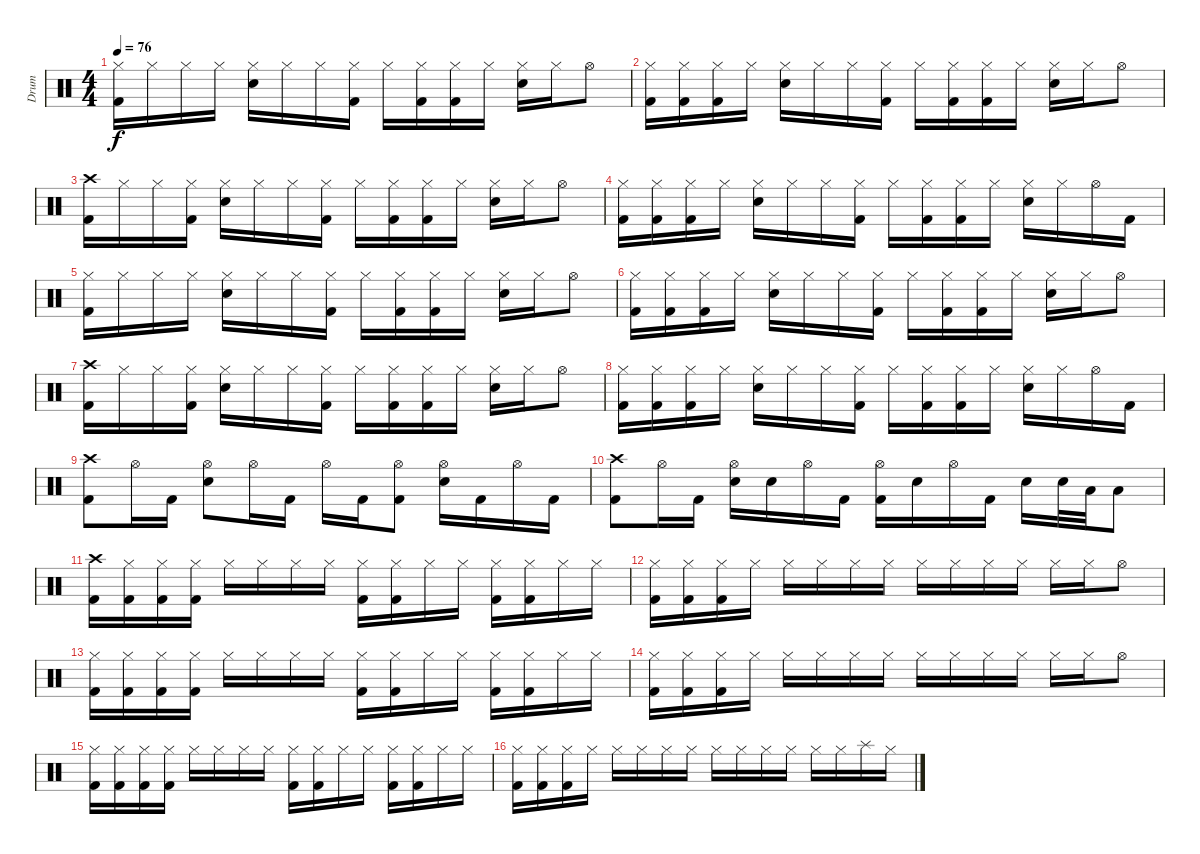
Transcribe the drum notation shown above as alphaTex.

\track ("Drum" "Drum") {instrument percussion}
\staff {score}
\articulation defaults
\ts (4 4)
\tempo 76
\clef neutral
\ks c
("Hi-Hat (closed)" "Kick (hit) 2").16{dy f} "Hi-Hat (closed)".16 "Hi-Hat (closed)".16 "Hi-Hat (closed)".16 ("Hi-Hat (closed)" "Electric Snare (hit)").16 "Hi-Hat (closed)".16 "Hi-Hat (closed)".16 ("Hi-Hat (closed)" "Kick (hit) 2").16 "Hi-Hat (closed)".16 ("Hi-Hat (closed)" "Kick (hit) 2").16 ("Hi-Hat (closed)" "Kick (hit) 2").16 "Hi-Hat (closed)".16 ("Hi-Hat (closed)" "Electric Snare (hit)").16 "Hi-Hat (closed)".16 "Hi-Hat (open)".8 |
("Hi-Hat (closed)" "Kick (hit) 2").16 ("Hi-Hat (closed)" "Kick (hit) 2").16 ("Hi-Hat (closed)" "Kick (hit) 2").16 "Hi-Hat (closed)".16 ("Hi-Hat (closed)" "Electric Snare (hit)").16 "Hi-Hat (closed)".16 "Hi-Hat (closed)".16 ("Hi-Hat (closed)" "Kick (hit) 2").16 "Hi-Hat (closed)".16 ("Hi-Hat (closed)" "Kick (hit) 2").16 ("Hi-Hat (closed)" "Kick (hit) 2").16 "Hi-Hat (closed)".16 ("Hi-Hat (closed)" "Electric Snare (hit)").16 "Hi-Hat (closed)".16 "Hi-Hat (open)".8 |
("Crash high (hit)" "Kick (hit) 2").16 "Hi-Hat (closed)".16 "Hi-Hat (closed)".16 ("Hi-Hat (closed)" "Kick (hit) 2").16 ("Hi-Hat (closed)" "Electric Snare (hit)").16 "Hi-Hat (closed)".16 "Hi-Hat (closed)".16 ("Hi-Hat (closed)" "Kick (hit) 2").16 "Hi-Hat (closed)".16 ("Hi-Hat (closed)" "Kick (hit) 2").16 ("Hi-Hat (closed)" "Kick (hit) 2").16 "Hi-Hat (closed)".16 ("Hi-Hat (closed)" "Electric Snare (hit)").16 "Hi-Hat (closed)".16 "Hi-Hat (open)".8 |
("Hi-Hat (closed)" "Kick (hit) 2").16 ("Hi-Hat (closed)" "Kick (hit) 2").16 ("Hi-Hat (closed)" "Kick (hit) 2").16 "Hi-Hat (closed)".16 ("Hi-Hat (closed)" "Electric Snare (hit)").16 "Hi-Hat (closed)".16 "Hi-Hat (closed)".16 ("Hi-Hat (closed)" "Kick (hit) 2").16 "Hi-Hat (closed)".16 ("Hi-Hat (closed)" "Kick (hit) 2").16 ("Hi-Hat (closed)" "Kick (hit) 2").16 "Hi-Hat (closed)".16 ("Hi-Hat (closed)" "Electric Snare (hit)").16 "Hi-Hat (closed)".16 "Hi-Hat (open)".16 "Kick (hit) 2".16 |
("Hi-Hat (closed)" "Kick (hit) 2").16 "Hi-Hat (closed)".16 "Hi-Hat (closed)".16 "Hi-Hat (closed)".16 ("Hi-Hat (closed)" "Electric Snare (hit)").16 "Hi-Hat (closed)".16 "Hi-Hat (closed)".16 ("Hi-Hat (closed)" "Kick (hit) 2").16 "Hi-Hat (closed)".16 ("Hi-Hat (closed)" "Kick (hit) 2").16 ("Hi-Hat (closed)" "Kick (hit) 2").16 "Hi-Hat (closed)".16 ("Hi-Hat (closed)" "Electric Snare (hit)").16 "Hi-Hat (closed)".16 "Hi-Hat (open)".8 |
("Hi-Hat (closed)" "Kick (hit) 2").16 ("Hi-Hat (closed)" "Kick (hit) 2").16 ("Hi-Hat (closed)" "Kick (hit) 2").16 "Hi-Hat (closed)".16 ("Hi-Hat (closed)" "Electric Snare (hit)").16 "Hi-Hat (closed)".16 "Hi-Hat (closed)".16 ("Hi-Hat (closed)" "Kick (hit) 2").16 "Hi-Hat (closed)".16 ("Hi-Hat (closed)" "Kick (hit) 2").16 ("Hi-Hat (closed)" "Kick (hit) 2").16 "Hi-Hat (closed)".16 ("Hi-Hat (closed)" "Electric Snare (hit)").16 "Hi-Hat (closed)".16 "Hi-Hat (open)".8 |
("Crash high (hit)" "Kick (hit) 2").16 "Hi-Hat (closed)".16 "Hi-Hat (closed)".16 ("Hi-Hat (closed)" "Kick (hit) 2").16 ("Hi-Hat (closed)" "Electric Snare (hit)").16 "Hi-Hat (closed)".16 "Hi-Hat (closed)".16 ("Hi-Hat (closed)" "Kick (hit) 2").16 "Hi-Hat (closed)".16 ("Hi-Hat (closed)" "Kick (hit) 2").16 ("Hi-Hat (closed)" "Kick (hit) 2").16 "Hi-Hat (closed)".16 ("Hi-Hat (closed)" "Electric Snare (hit)").16 "Hi-Hat (closed)".16 "Hi-Hat (open)".8 |
("Hi-Hat (closed)" "Kick (hit) 2").16 ("Hi-Hat (closed)" "Kick (hit) 2").16 ("Hi-Hat (closed)" "Kick (hit) 2").16 "Hi-Hat (closed)".16 ("Hi-Hat (closed)" "Electric Snare (hit)").16 "Hi-Hat (closed)".16 "Hi-Hat (closed)".16 ("Hi-Hat (closed)" "Kick (hit) 2").16 "Hi-Hat (closed)".16 ("Hi-Hat (closed)" "Kick (hit) 2").16 ("Hi-Hat (closed)" "Kick (hit) 2").16 "Hi-Hat (closed)".16 ("Hi-Hat (closed)" "Electric Snare (hit)").16 "Hi-Hat (closed)".16 "Hi-Hat (open)".16 "Kick (hit) 2".16 |
("Crash high (hit)" "Kick (hit) 2").8 "Hi-Hat (open)".16 "Kick (hit) 2".16 ("Hi-Hat (open)" "Electric Snare (hit)").8 "Hi-Hat (open)".16 "Kick (hit) 2".16 "Hi-Hat (open)".16 "Kick (hit) 2".16 ("Hi-Hat (open)" "Kick (hit) 2").8 ("Hi-Hat (open)" "Electric Snare (hit)").16 "Kick (hit) 2".16 "Hi-Hat (open)".16 "Kick (hit) 2".16 |
("Crash high (hit)" "Kick (hit) 2").8 "Hi-Hat (open)".16 "Kick (hit) 2".16 ("Hi-Hat (open)" "Electric Snare (hit)").16 "Electric Snare (hit)".16 "Hi-Hat (open)".16 "Kick (hit) 2".16 ("Hi-Hat (open)" "Kick (hit) 2").16 "Electric Snare (hit)".16 "Hi-Hat (open)".16 "Kick (hit) 2".16 "Electric Snare (hit)".16 "Electric Snare (hit)".32 "Low Floor Tom (hit)".32 "Low Tom (hit)".8 |
("Crash high (hit)" "Kick (hit) 2").16 ("Hi-Hat (closed)" "Kick (hit) 2").16 ("Hi-Hat (closed)" "Kick (hit) 2").16 ("Hi-Hat (closed)" "Kick (hit) 2").16 "Hi-Hat (closed)".16 "Hi-Hat (closed)".16 "Hi-Hat (closed)".16 "Hi-Hat (closed)".16 ("Hi-Hat (closed)" "Kick (hit) 2").16 ("Hi-Hat (closed)" "Kick (hit) 2").16 "Hi-Hat (closed)".16 "Hi-Hat (closed)".16 ("Hi-Hat (closed)" "Kick (hit) 2").16 ("Hi-Hat (closed)" "Kick (hit) 2").16 "Hi-Hat (closed)".16 "Hi-Hat (closed)".16 |
("Hi-Hat (closed)" "Kick (hit) 2").16 ("Hi-Hat (closed)" "Kick (hit) 2").16 ("Hi-Hat (closed)" "Kick (hit) 2").16 "Hi-Hat (closed)".16 "Hi-Hat (closed)".16 "Hi-Hat (closed)".16 "Hi-Hat (closed)".16 "Hi-Hat (closed)".16 "Hi-Hat (closed)".16 "Hi-Hat (closed)".16 "Hi-Hat (closed)".16 "Hi-Hat (closed)".16 "Hi-Hat (closed)".16 "Hi-Hat (closed)".16 "Hi-Hat (open)".8 |
("Hi-Hat (closed)" "Kick (hit) 2").16 ("Hi-Hat (closed)" "Kick (hit) 2").16 ("Hi-Hat (closed)" "Kick (hit) 2").16 ("Hi-Hat (closed)" "Kick (hit) 2").16 "Hi-Hat (closed)".16 "Hi-Hat (closed)".16 "Hi-Hat (closed)".16 "Hi-Hat (closed)".16 ("Hi-Hat (closed)" "Kick (hit) 2").16 ("Hi-Hat (closed)" "Kick (hit) 2").16 "Hi-Hat (closed)".16 "Hi-Hat (closed)".16 ("Hi-Hat (closed)" "Kick (hit) 2").16 ("Hi-Hat (closed)" "Kick (hit) 2").16 "Hi-Hat (closed)".16 "Hi-Hat (closed)".16 |
("Hi-Hat (closed)" "Kick (hit) 2").16 ("Hi-Hat (closed)" "Kick (hit) 2").16 ("Hi-Hat (closed)" "Kick (hit) 2").16 "Hi-Hat (closed)".16 "Hi-Hat (closed)".16 "Hi-Hat (closed)".16 "Hi-Hat (closed)".16 "Hi-Hat (closed)".16 "Hi-Hat (closed)".16 "Hi-Hat (closed)".16 "Hi-Hat (closed)".16 "Hi-Hat (closed)".16 "Hi-Hat (closed)".16 "Hi-Hat (closed)".16 "Hi-Hat (open)".8 |
("Hi-Hat (closed)" "Kick (hit) 2").16 ("Hi-Hat (closed)" "Kick (hit) 2").16 ("Hi-Hat (closed)" "Kick (hit) 2").16 ("Hi-Hat (closed)" "Kick (hit) 2").16 "Hi-Hat (closed)".16 "Hi-Hat (closed)".16 "Hi-Hat (closed)".16 "Hi-Hat (closed)".16 ("Hi-Hat (closed)" "Kick (hit) 2").16 ("Hi-Hat (closed)" "Kick (hit) 2").16 "Hi-Hat (closed)".16 "Hi-Hat (closed)".16 ("Hi-Hat (closed)" "Kick (hit) 2").16 ("Hi-Hat (closed)" "Kick (hit) 2").16 "Hi-Hat (closed)".16 "Hi-Hat (closed)".16 |
("Hi-Hat (closed)" "Kick (hit) 2").16 ("Hi-Hat (closed)" "Kick (hit) 2").16 ("Hi-Hat (closed)" "Kick (hit) 2").16 "Hi-Hat (closed)".16 "Hi-Hat (closed)".16 "Hi-Hat (closed)".16 "Hi-Hat (closed)".16 "Hi-Hat (closed)".16 "Hi-Hat (closed)".16 "Hi-Hat (closed)".16 "Hi-Hat (closed)".16 "Hi-Hat (closed)".16 "Hi-Hat (closed)".16 "Hi-Hat (closed)".16 "Splash (hit)".16 "Hi-Hat (closed)".16
